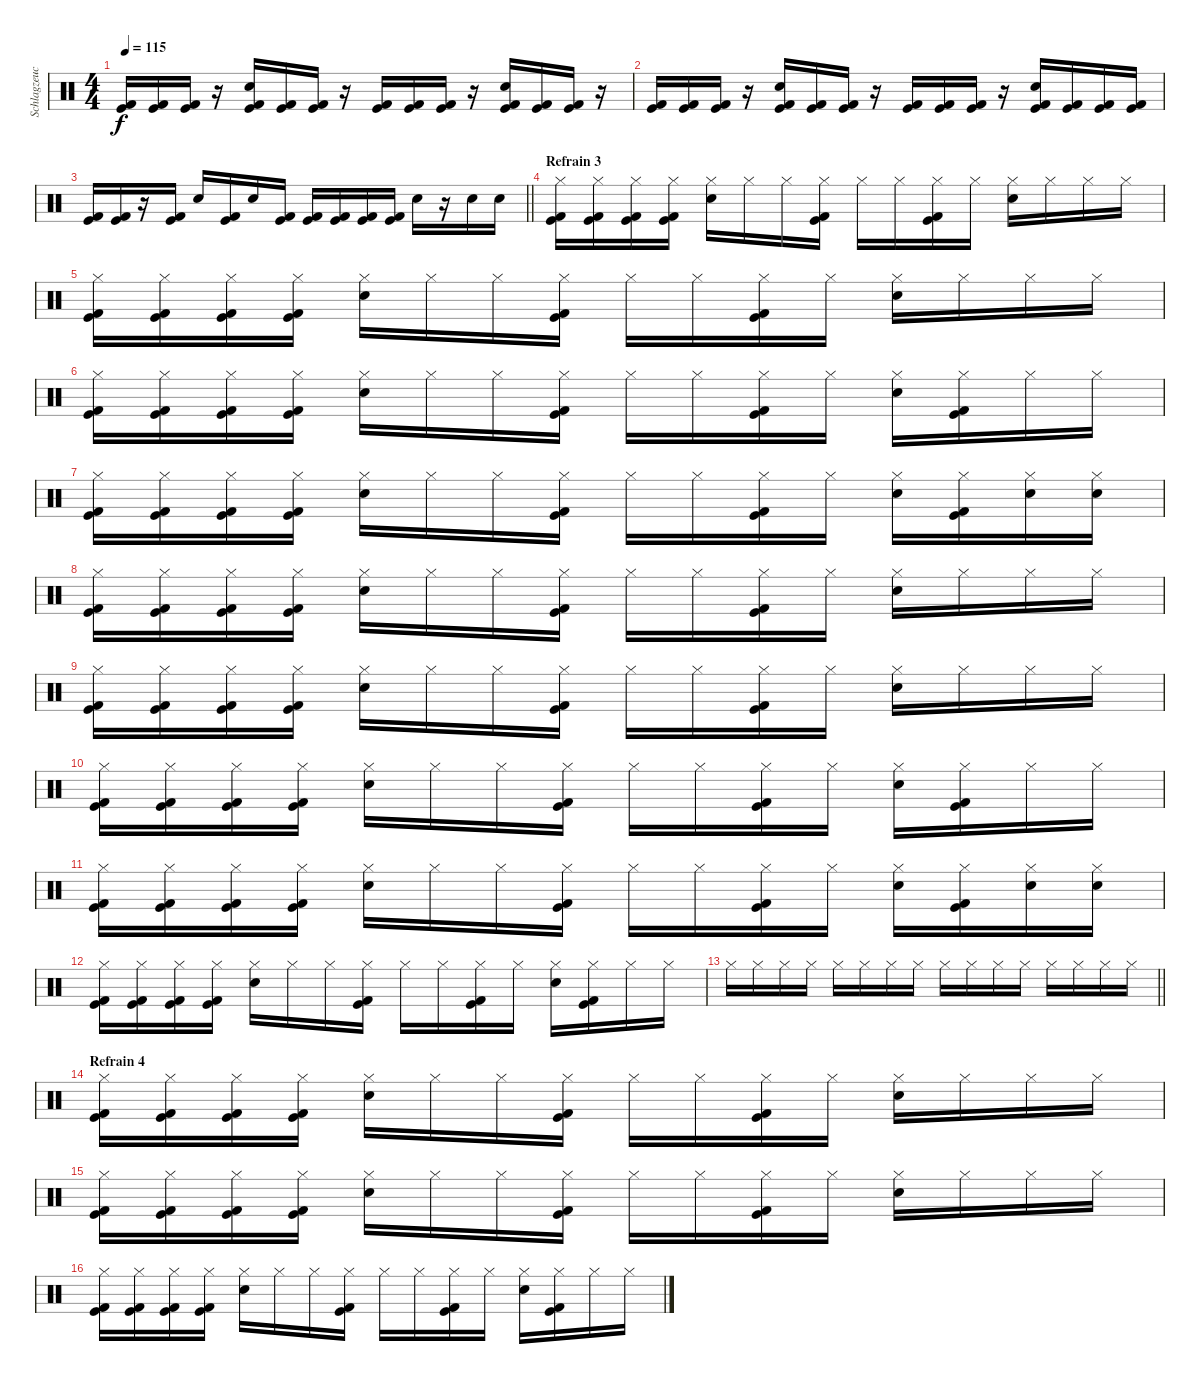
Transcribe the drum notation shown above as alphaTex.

\track ("Schlagzeuch" "Schlagzeuc") {instrument percussion}
\staff {score}
\articulation defaults
\ts (4 4)
\tempo 115
\clef neutral
\ks c
("Kick (hit)" "Kick (hit) 2").16{dy f} ("Kick (hit)" "Kick (hit) 2").16 ("Kick (hit)" "Kick (hit) 2").16 r.16 ("Kick (hit)" "Kick (hit) 2" "Electric Snare (hit)").16 ("Kick (hit)" "Kick (hit) 2").16 ("Kick (hit)" "Kick (hit) 2").16 r.16 ("Kick (hit)" "Kick (hit) 2").16 ("Kick (hit)" "Kick (hit) 2").16 ("Kick (hit)" "Kick (hit) 2").16 r.16 ("Kick (hit)" "Kick (hit) 2" "Electric Snare (hit)").16 ("Kick (hit)" "Kick (hit) 2").16 ("Kick (hit)" "Kick (hit) 2").16 r.16 |
("Kick (hit)" "Kick (hit) 2").16 ("Kick (hit)" "Kick (hit) 2").16 ("Kick (hit)" "Kick (hit) 2").16 r.16 ("Kick (hit)" "Kick (hit) 2" "Electric Snare (hit)").16 ("Kick (hit)" "Kick (hit) 2").16 ("Kick (hit)" "Kick (hit) 2").16 r.16 ("Kick (hit)" "Kick (hit) 2").16 ("Kick (hit)" "Kick (hit) 2").16 ("Kick (hit)" "Kick (hit) 2").16 r.16 ("Kick (hit)" "Kick (hit) 2" "Electric Snare (hit)").16 ("Kick (hit)" "Kick (hit) 2").16 ("Kick (hit)" "Kick (hit) 2").16 ("Kick (hit)" "Kick (hit) 2").16 |
\barLineRight lightlight
("Kick (hit)" "Kick (hit) 2").16 ("Kick (hit)" "Kick (hit) 2").16 r.16 ("Kick (hit)" "Kick (hit) 2").16 "Electric Snare (hit)".16 ("Kick (hit)" "Kick (hit) 2").16 "Electric Snare (hit)".16 ("Kick (hit)" "Kick (hit) 2").16 ("Kick (hit)" "Kick (hit) 2").16 ("Kick (hit)" "Kick (hit) 2").16 ("Kick (hit)" "Kick (hit) 2").16 ("Kick (hit)" "Kick (hit) 2").16 "Electric Snare (hit)".16 r.16 "Electric Snare (hit)".16 "Electric Snare (hit)".16 |
\section ("" "Refrain 3")
("Hi-Hat (closed)" "Kick (hit)" "Kick (hit) 2").16 ("Hi-Hat (closed)" "Kick (hit)" "Kick (hit) 2").16 ("Hi-Hat (closed)" "Kick (hit)" "Kick (hit) 2").16 ("Hi-Hat (closed)" "Kick (hit)" "Kick (hit) 2").16 ("Hi-Hat (closed)" "Electric Snare (hit)").16 "Hi-Hat (closed)".16 "Hi-Hat (closed)".16 ("Hi-Hat (closed)" "Kick (hit)" "Kick (hit) 2").16 "Hi-Hat (closed)".16 "Hi-Hat (closed)".16 ("Hi-Hat (closed)" "Kick (hit)" "Kick (hit) 2").16 "Hi-Hat (closed)".16 ("Hi-Hat (closed)" "Electric Snare (hit)").16 "Hi-Hat (closed)".16 "Hi-Hat (closed)".16 "Hi-Hat (closed)".16 |
("Hi-Hat (closed)" "Kick (hit)" "Kick (hit) 2").16 ("Hi-Hat (closed)" "Kick (hit)" "Kick (hit) 2").16 ("Hi-Hat (closed)" "Kick (hit)" "Kick (hit) 2").16 ("Hi-Hat (closed)" "Kick (hit)" "Kick (hit) 2").16 ("Hi-Hat (closed)" "Electric Snare (hit)").16 "Hi-Hat (closed)".16 "Hi-Hat (closed)".16 ("Hi-Hat (closed)" "Kick (hit)" "Kick (hit) 2").16 "Hi-Hat (closed)".16 "Hi-Hat (closed)".16 ("Hi-Hat (closed)" "Kick (hit)" "Kick (hit) 2").16 "Hi-Hat (closed)".16 ("Hi-Hat (closed)" "Electric Snare (hit)").16 "Hi-Hat (closed)".16 "Hi-Hat (closed)".16 "Hi-Hat (closed)".16 |
("Hi-Hat (closed)" "Kick (hit)" "Kick (hit) 2").16 ("Hi-Hat (closed)" "Kick (hit)" "Kick (hit) 2").16 ("Hi-Hat (closed)" "Kick (hit)" "Kick (hit) 2").16 ("Hi-Hat (closed)" "Kick (hit)" "Kick (hit) 2").16 ("Hi-Hat (closed)" "Electric Snare (hit)").16 "Hi-Hat (closed)".16 "Hi-Hat (closed)".16 ("Hi-Hat (closed)" "Kick (hit)" "Kick (hit) 2").16 "Hi-Hat (closed)".16 "Hi-Hat (closed)".16 ("Hi-Hat (closed)" "Kick (hit)" "Kick (hit) 2").16 "Hi-Hat (closed)".16 ("Hi-Hat (closed)" "Electric Snare (hit)").16 ("Hi-Hat (closed)" "Kick (hit)" "Kick (hit) 2").16 "Hi-Hat (closed)".16 "Hi-Hat (closed)".16 |
("Hi-Hat (closed)" "Kick (hit)" "Kick (hit) 2").16 ("Hi-Hat (closed)" "Kick (hit)" "Kick (hit) 2").16 ("Hi-Hat (closed)" "Kick (hit)" "Kick (hit) 2").16 ("Hi-Hat (closed)" "Kick (hit)" "Kick (hit) 2").16 ("Hi-Hat (closed)" "Electric Snare (hit)").16 "Hi-Hat (closed)".16 "Hi-Hat (closed)".16 ("Hi-Hat (closed)" "Kick (hit)" "Kick (hit) 2").16 "Hi-Hat (closed)".16 "Hi-Hat (closed)".16 ("Hi-Hat (closed)" "Kick (hit)" "Kick (hit) 2").16 "Hi-Hat (closed)".16 ("Hi-Hat (closed)" "Electric Snare (hit)").16 ("Hi-Hat (closed)" "Kick (hit)" "Kick (hit) 2").16 ("Hi-Hat (closed)" "Electric Snare (hit)").16 ("Hi-Hat (closed)" "Electric Snare (hit)").16 |
("Hi-Hat (closed)" "Kick (hit)" "Kick (hit) 2").16 ("Hi-Hat (closed)" "Kick (hit)" "Kick (hit) 2").16 ("Hi-Hat (closed)" "Kick (hit)" "Kick (hit) 2").16 ("Hi-Hat (closed)" "Kick (hit)" "Kick (hit) 2").16 ("Hi-Hat (closed)" "Electric Snare (hit)").16 "Hi-Hat (closed)".16 "Hi-Hat (closed)".16 ("Hi-Hat (closed)" "Kick (hit)" "Kick (hit) 2").16 "Hi-Hat (closed)".16 "Hi-Hat (closed)".16 ("Hi-Hat (closed)" "Kick (hit)" "Kick (hit) 2").16 "Hi-Hat (closed)".16 ("Hi-Hat (closed)" "Electric Snare (hit)").16 "Hi-Hat (closed)".16 "Hi-Hat (closed)".16 "Hi-Hat (closed)".16 |
("Hi-Hat (closed)" "Kick (hit)" "Kick (hit) 2").16 ("Hi-Hat (closed)" "Kick (hit)" "Kick (hit) 2").16 ("Hi-Hat (closed)" "Kick (hit)" "Kick (hit) 2").16 ("Hi-Hat (closed)" "Kick (hit)" "Kick (hit) 2").16 ("Hi-Hat (closed)" "Electric Snare (hit)").16 "Hi-Hat (closed)".16 "Hi-Hat (closed)".16 ("Hi-Hat (closed)" "Kick (hit)" "Kick (hit) 2").16 "Hi-Hat (closed)".16 "Hi-Hat (closed)".16 ("Hi-Hat (closed)" "Kick (hit)" "Kick (hit) 2").16 "Hi-Hat (closed)".16 ("Hi-Hat (closed)" "Electric Snare (hit)").16 "Hi-Hat (closed)".16 "Hi-Hat (closed)".16 "Hi-Hat (closed)".16 |
("Hi-Hat (closed)" "Kick (hit)" "Kick (hit) 2").16 ("Hi-Hat (closed)" "Kick (hit)" "Kick (hit) 2").16 ("Hi-Hat (closed)" "Kick (hit)" "Kick (hit) 2").16 ("Hi-Hat (closed)" "Kick (hit)" "Kick (hit) 2").16 ("Hi-Hat (closed)" "Electric Snare (hit)").16 "Hi-Hat (closed)".16 "Hi-Hat (closed)".16 ("Hi-Hat (closed)" "Kick (hit)" "Kick (hit) 2").16 "Hi-Hat (closed)".16 "Hi-Hat (closed)".16 ("Hi-Hat (closed)" "Kick (hit)" "Kick (hit) 2").16 "Hi-Hat (closed)".16 ("Hi-Hat (closed)" "Electric Snare (hit)").16 ("Hi-Hat (closed)" "Kick (hit)" "Kick (hit) 2").16 "Hi-Hat (closed)".16 "Hi-Hat (closed)".16 |
("Hi-Hat (closed)" "Kick (hit)" "Kick (hit) 2").16 ("Hi-Hat (closed)" "Kick (hit)" "Kick (hit) 2").16 ("Hi-Hat (closed)" "Kick (hit)" "Kick (hit) 2").16 ("Hi-Hat (closed)" "Kick (hit)" "Kick (hit) 2").16 ("Hi-Hat (closed)" "Electric Snare (hit)").16 "Hi-Hat (closed)".16 "Hi-Hat (closed)".16 ("Hi-Hat (closed)" "Kick (hit)" "Kick (hit) 2").16 "Hi-Hat (closed)".16 "Hi-Hat (closed)".16 ("Hi-Hat (closed)" "Kick (hit)" "Kick (hit) 2").16 "Hi-Hat (closed)".16 ("Hi-Hat (closed)" "Electric Snare (hit)").16 ("Hi-Hat (closed)" "Kick (hit)" "Kick (hit) 2").16 ("Hi-Hat (closed)" "Electric Snare (hit)").16 ("Hi-Hat (closed)" "Electric Snare (hit)").16 |
("Hi-Hat (closed)" "Kick (hit)" "Kick (hit) 2").16 ("Hi-Hat (closed)" "Kick (hit)" "Kick (hit) 2").16 ("Hi-Hat (closed)" "Kick (hit)" "Kick (hit) 2").16 ("Hi-Hat (closed)" "Kick (hit)" "Kick (hit) 2").16 ("Hi-Hat (closed)" "Electric Snare (hit)").16 "Hi-Hat (closed)".16 "Hi-Hat (closed)".16 ("Hi-Hat (closed)" "Kick (hit)" "Kick (hit) 2").16 "Hi-Hat (closed)".16 "Hi-Hat (closed)".16 ("Hi-Hat (closed)" "Kick (hit)" "Kick (hit) 2").16 "Hi-Hat (closed)".16 ("Hi-Hat (closed)" "Electric Snare (hit)").16 ("Hi-Hat (closed)" "Kick (hit)" "Kick (hit) 2").16 "Hi-Hat (closed)".16 "Hi-Hat (closed)".16 |
\barLineRight lightlight "Hi-Hat (closed)".16 "Hi-Hat (closed)".16 "Hi-Hat (closed)".16 "Hi-Hat (closed)".16 "Hi-Hat (closed)".16 "Hi-Hat (closed)".16 "Hi-Hat (closed)".16 "Hi-Hat (closed)".16 "Hi-Hat (closed)".16 "Hi-Hat (closed)".16 "Hi-Hat (closed)".16 "Hi-Hat (closed)".16 "Hi-Hat (closed)".16 "Hi-Hat (closed)".16 "Hi-Hat (closed)".16 "Hi-Hat (closed)".16
|
\section ("" "Refrain 4")
("Hi-Hat (closed)" "Kick (hit)" "Kick (hit) 2").16 ("Hi-Hat (closed)" "Kick (hit)" "Kick (hit) 2").16 ("Hi-Hat (closed)" "Kick (hit)" "Kick (hit) 2").16 ("Hi-Hat (closed)" "Kick (hit)" "Kick (hit) 2").16 ("Hi-Hat (closed)" "Electric Snare (hit)").16 "Hi-Hat (closed)".16 "Hi-Hat (closed)".16 ("Hi-Hat (closed)" "Kick (hit)" "Kick (hit) 2").16 "Hi-Hat (closed)".16 "Hi-Hat (closed)".16 ("Hi-Hat (closed)" "Kick (hit)" "Kick (hit) 2").16 "Hi-Hat (closed)".16 ("Hi-Hat (closed)" "Electric Snare (hit)").16 "Hi-Hat (closed)".16 "Hi-Hat (closed)".16 "Hi-Hat (closed)".16 |
("Hi-Hat (closed)" "Kick (hit)" "Kick (hit) 2").16 ("Hi-Hat (closed)" "Kick (hit)" "Kick (hit) 2").16 ("Hi-Hat (closed)" "Kick (hit)" "Kick (hit) 2").16 ("Hi-Hat (closed)" "Kick (hit)" "Kick (hit) 2").16 ("Hi-Hat (closed)" "Electric Snare (hit)").16 "Hi-Hat (closed)".16 "Hi-Hat (closed)".16 ("Hi-Hat (closed)" "Kick (hit)" "Kick (hit) 2").16 "Hi-Hat (closed)".16 "Hi-Hat (closed)".16 ("Hi-Hat (closed)" "Kick (hit)" "Kick (hit) 2").16 "Hi-Hat (closed)".16 ("Hi-Hat (closed)" "Electric Snare (hit)").16 "Hi-Hat (closed)".16 "Hi-Hat (closed)".16 "Hi-Hat (closed)".16 |
("Hi-Hat (closed)" "Kick (hit)" "Kick (hit) 2").16 ("Hi-Hat (closed)" "Kick (hit)" "Kick (hit) 2").16 ("Hi-Hat (closed)" "Kick (hit)" "Kick (hit) 2").16 ("Hi-Hat (closed)" "Kick (hit)" "Kick (hit) 2").16 ("Hi-Hat (closed)" "Electric Snare (hit)").16 "Hi-Hat (closed)".16 "Hi-Hat (closed)".16 ("Hi-Hat (closed)" "Kick (hit)" "Kick (hit) 2").16 "Hi-Hat (closed)".16 "Hi-Hat (closed)".16 ("Hi-Hat (closed)" "Kick (hit)" "Kick (hit) 2").16 "Hi-Hat (closed)".16 ("Hi-Hat (closed)" "Electric Snare (hit)").16 ("Hi-Hat (closed)" "Kick (hit)" "Kick (hit) 2").16 "Hi-Hat (closed)".16 "Hi-Hat (closed)".16
